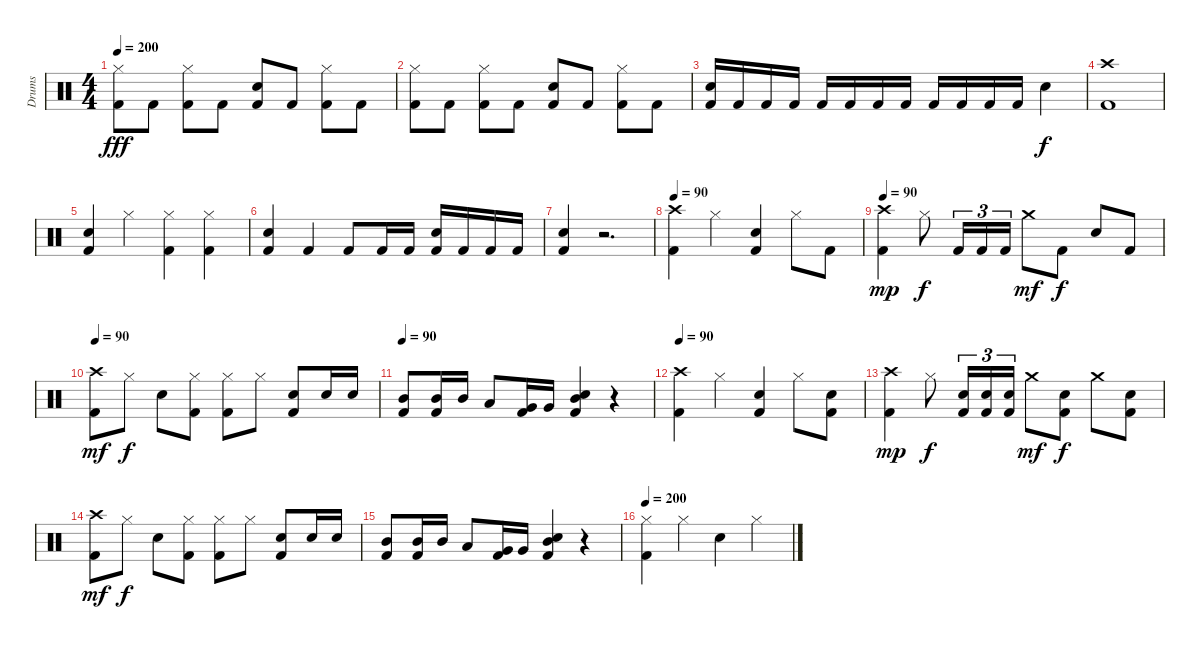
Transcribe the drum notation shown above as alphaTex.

\track ("Drums" "Drums") {instrument percussion}
\staff {score}
\articulation defaults
\ts (4 4)
\tempo 200
\clef neutral
\ks c
("Hi-Hat (closed)" "Kick (hit) 2").8{dy fff} "Kick (hit) 2".8 ("Hi-Hat (closed)" "Kick (hit) 2").8 "Kick (hit) 2".8 ("Electric Snare (hit)" "Kick (hit) 2").8 "Kick (hit) 2".8 ("Hi-Hat (closed)" "Kick (hit) 2").8 "Kick (hit) 2".8 |
("Hi-Hat (closed)" "Kick (hit) 2").8 "Kick (hit) 2".8 ("Hi-Hat (closed)" "Kick (hit) 2").8 "Kick (hit) 2".8 ("Electric Snare (hit)" "Kick (hit) 2").8 "Kick (hit) 2".8 ("Hi-Hat (closed)" "Kick (hit) 2").8 "Kick (hit) 2".8 |
("Electric Snare (hit)" "Kick (hit) 2").16 "Kick (hit) 2".16 "Kick (hit) 2".16 "Kick (hit) 2".16 "Kick (hit) 2".16 "Kick (hit) 2".16 "Kick (hit) 2".16 "Kick (hit) 2".16 "Kick (hit) 2".16 "Kick (hit) 2".16 "Kick (hit) 2".16 "Kick (hit) 2".16 "Electric Snare (hit)".4{dy f} |
("Crash high (hit)" "Kick (hit) 2").1 |
("Electric Snare (hit)" "Kick (hit) 2").4 "Hi-Hat (closed)".4 ("Hi-Hat (closed)" "Kick (hit) 2").4 ("Hi-Hat (closed)" "Kick (hit) 2").4 |
("Electric Snare (hit)" "Kick (hit) 2").4 "Kick (hit) 2".4 "Kick (hit) 2".8 "Kick (hit) 2".16 "Kick (hit) 2".16 ("Electric Snare (hit)" "Kick (hit) 2").16 "Kick (hit) 2".16 "Kick (hit) 2".16 "Kick (hit) 2".16 |
("Electric Snare (hit)" "Kick (hit) 2").4 r.2{d} |
\tempo 90
("Crash high (hit)" "Kick (hit) 2").4 "Hi-Hat (closed)".4 ("Electric Snare (hit)" "Kick (hit) 2").4 "Hi-Hat (closed)".8 "Kick (hit) 2".8 |
\tempo 90
("Crash high (hit)" "Kick (hit) 2").4{dy mp} "Hi-Hat (closed)".8{dy f} "Kick (hit) 2".16{tu (3 2)} "Kick (hit) 2".16{tu (3 2)} "Kick (hit) 2".16{tu (3 2)} "Crash medium (hit)".8{dy mf} "Kick (hit) 2".8{dy f} "Electric Snare (hit)".8 "Kick (hit) 2".8 |
\tempo 90
("Crash high (hit)" "Kick (hit) 2").8{dy mf} "Hi-Hat (closed)".8{dy f} "Electric Snare (hit)".8 ("Hi-Hat (closed)" "Kick (hit) 2").8 ("Hi-Hat (closed)" "Kick (hit) 2").8 "Hi-Hat (closed)".8 ("Electric Snare (hit)" "Kick (hit) 2").8 "Electric Snare (hit)".16 "Electric Snare (hit)".16 |
\tempo 90
("Mid Tom (hit)" "Kick (hit) 2").8 ("Mid Tom (hit)" "Kick (hit) 2").16 "Mid Tom (hit)".16 "Low Tom (hit)".8 ("Very Low Tom (hit)" "Kick (hit) 2").16 "Very Low Tom (hit)".16 ("Mid Tom (hit)" "Electric Snare (hit)" "Kick (hit) 2").4 r.4 |
\tempo 90
("Crash high (hit)" "Kick (hit) 2").4 "Hi-Hat (closed)".4 ("Electric Snare (hit)" "Kick (hit) 2").4 "Hi-Hat (closed)".8 ("Electric Snare (hit)" "Kick (hit) 2").8 |
("Crash high (hit)" "Kick (hit) 2").4{dy mp} "Hi-Hat (closed)".8{dy f} ("Electric Snare (hit)" "Kick (hit) 2").16{tu (3 2)} ("Electric Snare (hit)" "Kick (hit) 2").16{tu (3 2)} ("Electric Snare (hit)" "Kick (hit) 2").16{tu (3 2)} "Crash medium (hit)".8{dy mf} ("Electric Snare (hit)" "Kick (hit) 2").8{dy f} "Crash medium (hit)".8 ("Electric Snare (hit)" "Kick (hit) 2").8 |
("Crash high (hit)" "Kick (hit) 2").8{dy mf} "Hi-Hat (closed)".8{dy f} "Electric Snare (hit)".8 ("Hi-Hat (closed)" "Kick (hit) 2").8 ("Hi-Hat (closed)" "Kick (hit) 2").8 "Hi-Hat (closed)".8 ("Electric Snare (hit)" "Kick (hit) 2").8 "Electric Snare (hit)".16 "Electric Snare (hit)".16 |
("Mid Tom (hit)" "Kick (hit) 2").8 ("Mid Tom (hit)" "Kick (hit) 2").16 "Mid Tom (hit)".16 "Low Tom (hit)".8 ("Very Low Tom (hit)" "Kick (hit) 2").16 "Very Low Tom (hit)".16 ("Mid Tom (hit)" "Electric Snare (hit)" "Kick (hit) 2").4 r.4 |
\tempo 200
("Hi-Hat (closed)" "Kick (hit) 2").4 "Hi-Hat (closed)".4 "Electric Snare (hit)".4 "Hi-Hat (closed)".4
